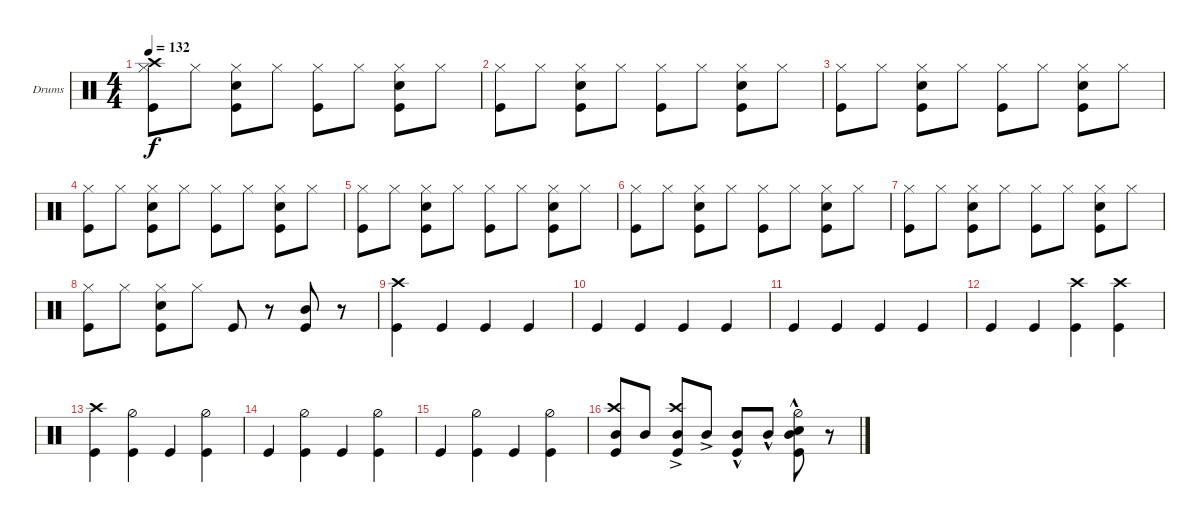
\defaultSystemsLayout 4
\bracketExtendMode groupsimilarinstruments
\firstSystemTrackNameOrientation horizontal
\otherSystemsTrackNameOrientation horizontal
\track ("Drumkit" "Drums") {instrument percussion}
\staff {score}
\articulation defaults
\ts (4 4)
\tempo 132
\clef neutral
\ks c
("Hi-Hat (closed)" "Kick (hit)" "Crash high (hit)").8{dy f} "Hi-Hat (closed)".8 ("Hi-Hat (closed)" "Kick (hit)" "Snare (hit) 2").8 "Hi-Hat (closed)".8 ("Hi-Hat (closed)" "Kick (hit)").8 "Hi-Hat (closed)".8 ("Hi-Hat (closed)" "Kick (hit)" "Snare (hit) 2").8 "Hi-Hat (closed)".8 |
("Hi-Hat (closed)" "Kick (hit)").8 "Hi-Hat (closed)".8 ("Hi-Hat (closed)" "Kick (hit)" "Snare (hit) 2").8 "Hi-Hat (closed)".8 ("Hi-Hat (closed)" "Kick (hit)").8 "Hi-Hat (closed)".8 ("Hi-Hat (closed)" "Kick (hit)" "Snare (hit) 2").8 "Hi-Hat (closed)".8 |
("Hi-Hat (closed)" "Kick (hit)").8 "Hi-Hat (closed)".8 ("Hi-Hat (closed)" "Kick (hit)" "Snare (hit) 2").8 "Hi-Hat (closed)".8 ("Hi-Hat (closed)" "Kick (hit)").8 "Hi-Hat (closed)".8 ("Hi-Hat (closed)" "Kick (hit)" "Snare (hit) 2").8 "Hi-Hat (closed)".8 |
("Hi-Hat (closed)" "Kick (hit)").8 "Hi-Hat (closed)".8 ("Hi-Hat (closed)" "Kick (hit)" "Snare (hit) 2").8 "Hi-Hat (closed)".8 ("Hi-Hat (closed)" "Kick (hit)").8 "Hi-Hat (closed)".8 ("Hi-Hat (closed)" "Kick (hit)" "Snare (hit) 2").8 "Hi-Hat (closed)".8 |
("Hi-Hat (closed)" "Kick (hit)").8 "Hi-Hat (closed)".8 ("Hi-Hat (closed)" "Kick (hit)" "Snare (hit) 2").8 "Hi-Hat (closed)".8 ("Hi-Hat (closed)" "Kick (hit)").8 "Hi-Hat (closed)".8 ("Hi-Hat (closed)" "Kick (hit)" "Snare (hit) 2").8 "Hi-Hat (closed)".8 |
("Hi-Hat (closed)" "Kick (hit)").8 "Hi-Hat (closed)".8 ("Hi-Hat (closed)" "Kick (hit)" "Snare (hit) 2").8 "Hi-Hat (closed)".8 ("Hi-Hat (closed)" "Kick (hit)").8 "Hi-Hat (closed)".8 ("Hi-Hat (closed)" "Kick (hit)" "Snare (hit) 2").8 "Hi-Hat (closed)".8 |
("Hi-Hat (closed)" "Kick (hit)").8 "Hi-Hat (closed)".8 ("Hi-Hat (closed)" "Kick (hit)" "Snare (hit) 2").8 "Hi-Hat (closed)".8 ("Hi-Hat (closed)" "Kick (hit)").8 "Hi-Hat (closed)".8 ("Hi-Hat (closed)" "Kick (hit)" "Snare (hit) 2").8 "Hi-Hat (closed)".8 |
("Hi-Hat (closed)" "Kick (hit)").8 "Hi-Hat (closed)".8 ("Hi-Hat (closed)" "Kick (hit)" "Snare (hit) 2").8 "Hi-Hat (closed)".8 "Kick (hit)".8 r.8 ("Kick (hit)" "Mid Tom (hit)").8 r.8 |
("Kick (hit)" "Crash high (hit)").4 "Kick (hit)".4 "Kick (hit)".4 "Kick (hit)".4 |
"Kick (hit)".4 "Kick (hit)".4 "Kick (hit)".4 "Kick (hit)".4 |
"Kick (hit)".4 "Kick (hit)".4 "Kick (hit)".4 "Kick (hit)".4 |
"Kick (hit)".4 "Kick (hit)".4 ("Kick (hit)" "Crash high (hit)").4 ("Kick (hit)" "Crash high (hit)").4 |
("Kick (hit)" "Crash high (hit)").4 ("Kick (hit)" "Hi-Hat (half)").4 "Kick (hit)".4 ("Kick (hit)" "Hi-Hat (half)").4 |
"Kick (hit)".4 ("Kick (hit)" "Hi-Hat (half)").4 "Kick (hit)".4 ("Kick (hit)" "Hi-Hat (half)").4 |
"Kick (hit)".4 ("Kick (hit)" "Hi-Hat (half)").4 "Kick (hit)".4 ("Kick (hit)" "Hi-Hat (half)").4 |
("Kick (hit)" "Mid Tom (hit)" "Crash high (hit)").8 "Mid Tom (hit)".8 ("Kick (hit)" "Mid Tom (hit)"{ac} "Crash high (hit)").8 "Mid Tom (hit)"{ac}.8 ("Kick (hit)" "Mid Tom (hit)"{hac}).8 "Mid Tom (hit)"{hac}.8 ("Kick (hit)" "Mid Tom (hit)" "Snare (hit) 2"{hac} "Hi-Hat (half)").8 r.8
